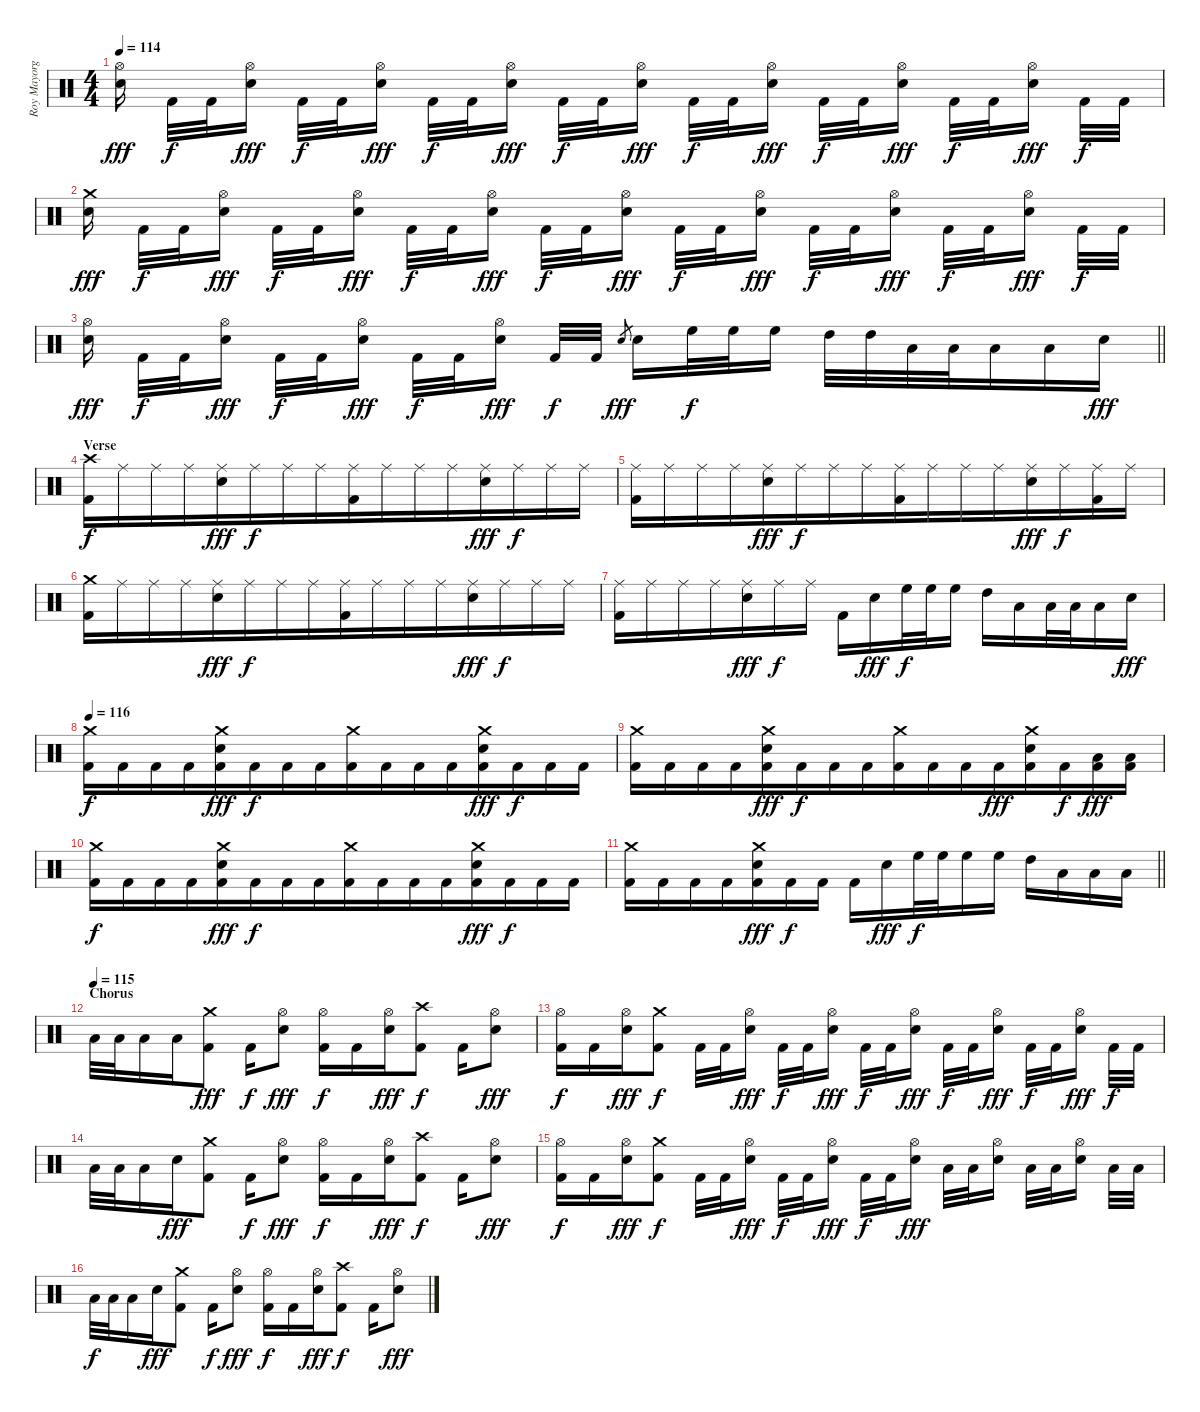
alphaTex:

\track ("Roy Mayorga" "Roy Mayorg") {instrument percussion}
\staff {score}
\articulation defaults
\ts (4 4)
\tempo 114
\clef neutral
\ks c
("Hi-Hat (open)" "Electric Snare (hit)").16{dy fff beam split} "Kick (hit) 2".32{dy f} "Kick (hit) 2".32 ("Hi-Hat (open)" "Electric Snare (hit)").16{dy fff beam split} "Kick (hit) 2".32{dy f} "Kick (hit) 2".32{beam merge} ("Hi-Hat (open)" "Electric Snare (hit)").16{dy fff beam split} "Kick (hit) 2".32{dy f} "Kick (hit) 2".32 ("Hi-Hat (open)" "Electric Snare (hit)").16{dy fff beam split} "Kick (hit) 2".32{dy f} "Kick (hit) 2".32{beam merge} ("Hi-Hat (open)" "Electric Snare (hit)").16{dy fff beam split} "Kick (hit) 2".32{dy f} "Kick (hit) 2".32 ("Hi-Hat (open)" "Electric Snare (hit)").16{dy fff beam split} "Kick (hit) 2".32{dy f} "Kick (hit) 2".32{beam merge} ("Hi-Hat (open)" "Electric Snare (hit)").16{dy fff beam split} "Kick (hit) 2".32{dy f} "Kick (hit) 2".32 ("Hi-Hat (open)" "Electric Snare (hit)").16{dy fff beam split} "Kick (hit) 2".32{dy f beam Down} "Kick (hit) 2".32{beam Down} |
("Crash medium (hit)" "Electric Snare (hit)").16{dy fff beam split} "Kick (hit) 2".32{dy f} "Kick (hit) 2".32 ("Hi-Hat (open)" "Electric Snare (hit)").16{dy fff beam split} "Kick (hit) 2".32{dy f} "Kick (hit) 2".32{beam merge} ("Hi-Hat (open)" "Electric Snare (hit)").16{dy fff beam split} "Kick (hit) 2".32{dy f} "Kick (hit) 2".32 ("Hi-Hat (open)" "Electric Snare (hit)").16{dy fff beam split} "Kick (hit) 2".32{dy f} "Kick (hit) 2".32{beam merge} ("Hi-Hat (open)" "Electric Snare (hit)").16{dy fff beam split} "Kick (hit) 2".32{dy f} "Kick (hit) 2".32 ("Hi-Hat (open)" "Electric Snare (hit)").16{dy fff beam split} "Kick (hit) 2".32{dy f} "Kick (hit) 2".32{beam merge} ("Hi-Hat (open)" "Electric Snare (hit)").16{dy fff beam split} "Kick (hit) 2".32{dy f} "Kick (hit) 2".32 ("Hi-Hat (open)" "Electric Snare (hit)").16{dy fff beam split} "Kick (hit) 2".32{dy f beam Down} "Kick (hit) 2".32{beam Down} |
\barLineRight lightlight
("Hi-Hat (open)" "Electric Snare (hit)").16{dy fff beam split} "Kick (hit) 2".32{dy f} "Kick (hit) 2".32 ("Hi-Hat (open)" "Electric Snare (hit)").16{dy fff beam split} "Kick (hit) 2".32{dy f} "Kick (hit) 2".32{beam merge} ("Hi-Hat (open)" "Electric Snare (hit)").16{dy fff beam split} "Kick (hit) 2".32{dy f} "Kick (hit) 2".32 ("Hi-Hat (open)" "Electric Snare (hit)").16{dy fff beam split} "Kick (hit) 2".32{dy f} "Kick (hit) 2".32 "Electric Snare (hit)".8{gr dy fff beam merge} "Electric Snare (hit)".16 "High Floor Tom (hit)".32{dy f} "High Floor Tom (hit)".32 "High Floor Tom (hit)".16{beam split} "High Tom (hit)".32 "High Tom (hit)".32{beam merge} "Low Tom (hit)".32 "Low Tom (hit)".32 "Low Floor Tom (hit)".16 "Low Floor Tom (hit)".16 "Electric Snare (hit)".16{dy fff} |
\section ("" "Verse")
("Crash high (hit)" "Kick (hit) 2").16{dy f} "Ride (middle)".16 "Ride (middle)".16 "Ride (middle)".16{beam merge} ("Ride (middle)" "Electric Snare (hit)").16{dy fff} "Ride (middle)".16{dy f} "Ride (middle)".16 "Ride (middle)".16{beam merge} ("Ride (middle)" "Kick (hit) 2").16 "Ride (middle)".16 "Ride (middle)".16 "Ride (middle)".16{beam merge} ("Ride (middle)" "Electric Snare (hit)").16{dy fff} "Ride (middle)".16{dy f} "Ride (middle)".16 "Ride (middle)".16 |
("Ride (middle)" "Kick (hit) 2").16 "Ride (middle)".16 "Ride (middle)".16 "Ride (middle)".16{beam merge} ("Ride (middle)" "Electric Snare (hit)").16{dy fff} "Ride (middle)".16{dy f} "Ride (middle)".16 "Ride (middle)".16{beam merge} ("Ride (middle)" "Kick (hit) 2").16 "Ride (middle)".16 "Ride (middle)".16 "Ride (middle)".16{beam merge} ("Ride (middle)" "Electric Snare (hit)").16{dy fff} "Ride (middle)".16{dy f} ("Ride (middle)" "Kick (hit) 2").16 "Ride (middle)".16 |
("Crash medium (hit)" "Kick (hit) 2").16 "Ride (middle)".16 "Ride (middle)".16 "Ride (middle)".16{beam merge} ("Ride (middle)" "Electric Snare (hit)").16{dy fff} "Ride (middle)".16{dy f} "Ride (middle)".16 "Ride (middle)".16{beam merge} ("Ride (middle)" "Kick (hit) 2").16 "Ride (middle)".16 "Ride (middle)".16 "Ride (middle)".16{beam merge} ("Ride (middle)" "Electric Snare (hit)").16{dy fff} "Ride (middle)".16{dy f} "Ride (middle)".16 "Ride (middle)".16 |
("Ride (middle)" "Kick (hit) 2").16 "Ride (middle)".16 "Ride (middle)".16 "Ride (middle)".16{beam merge} ("Ride (middle)" "Electric Snare (hit)").16{dy fff} "Ride (middle)".16{dy f} "Ride (middle)".16{beam split} "Kick (hit) 2".16{beam merge} "Electric Snare (hit)".16{dy fff} "High Floor Tom (hit)".32{dy f} "High Floor Tom (hit)".32 "High Floor Tom (hit)".16{beam split} "High Tom (hit)".16{beam merge} "Low Tom (hit)".16 "Low Floor Tom (hit)".32 "Low Floor Tom (hit)".32 "Low Floor Tom (hit)".16 "Electric Snare (hit)".16{dy fff} |
\tempo 116
("Crash medium (hit)" "Kick (hit) 2").16{dy f} "Kick (hit) 2".16 "Kick (hit) 2".16 "Kick (hit) 2".16{beam merge} ("Crash medium (hit)" "Electric Snare (hit)" "Kick (hit) 2").16{dy fff} "Kick (hit) 2".16{dy f} "Kick (hit) 2".16 "Kick (hit) 2".16{beam merge} ("Crash medium (hit)" "Kick (hit) 2").16 "Kick (hit) 2".16 "Kick (hit) 2".16 "Kick (hit) 2".16{beam merge} ("Crash medium (hit)" "Electric Snare (hit)" "Kick (hit) 2").16{dy fff} "Kick (hit) 2".16{dy f} "Kick (hit) 2".16 "Kick (hit) 2".16 |
("Crash medium (hit)" "Kick (hit) 2").16 "Kick (hit) 2".16 "Kick (hit) 2".16 "Kick (hit) 2".16{beam merge} ("Crash medium (hit)" "Electric Snare (hit)" "Kick (hit) 2").16{dy fff} "Kick (hit) 2".16{dy f} "Kick (hit) 2".16 "Kick (hit) 2".16{beam merge} ("Crash medium (hit)" "Kick (hit) 2").16 "Kick (hit) 2".16 "Kick (hit) 2".16 "Kick (hit) 2".16{dy fff beam merge} ("Crash medium (hit)" "Electric Snare (hit)" "Kick (hit) 2").16 "Kick (hit) 2".16{dy f} ("Low Tom (hit)" "Kick (hit) 2").16{dy fff} ("Low Floor Tom (hit)" "Kick (hit) 2").16 |
("Crash medium (hit)" "Kick (hit) 2").16{dy f} "Kick (hit) 2".16 "Kick (hit) 2".16 "Kick (hit) 2".16{beam merge} ("Crash medium (hit)" "Electric Snare (hit)" "Kick (hit) 2").16{dy fff} "Kick (hit) 2".16{dy f} "Kick (hit) 2".16 "Kick (hit) 2".16{beam merge} ("Crash medium (hit)" "Kick (hit) 2").16 "Kick (hit) 2".16 "Kick (hit) 2".16 "Kick (hit) 2".16{beam merge} ("Crash medium (hit)" "Electric Snare (hit)" "Kick (hit) 2").16{dy fff} "Kick (hit) 2".16{dy f} "Kick (hit) 2".16 "Kick (hit) 2".16 |
\barLineRight lightlight
("Crash medium (hit)" "Kick (hit) 2").16 "Kick (hit) 2".16 "Kick (hit) 2".16 "Kick (hit) 2".16{beam merge} ("Crash medium (hit)" "Electric Snare (hit)" "Kick (hit) 2").16{dy fff} "Kick (hit) 2".16{dy f} "Kick (hit) 2".16{beam split} "Kick (hit) 2".16{beam merge} "Electric Snare (hit)".16{dy fff} "High Floor Tom (hit)".32{dy f} "High Floor Tom (hit)".32 "High Floor Tom (hit)".16 "High Floor Tom (hit)".16 "High Tom (hit)".16 "Low Tom (hit)".16 "Low Floor Tom (hit)".16 "Low Floor Tom (hit)".16 |
\section ("" "Chorus")
\tempo (115)
"Low Tom (hit)".32 "Low Tom (hit)".32 "Low Tom (hit)".16 "Low Tom (hit)".16 ("Crash medium (hit)" "Kick (hit) 2").8{dy fff} "Kick (hit) 2".16{dy f} ("Hi-Hat (open)" "Electric Snare (hit)").8{dy fff} ("Hi-Hat (open)" "Kick (hit) 2").16{dy f} "Kick (hit) 2".16 ("Hi-Hat (open)" "Electric Snare (hit)").16{dy fff} ("Crash high (hit)" "Kick (hit) 2").8{dy f} "Kick (hit) 2".16 ("Hi-Hat (open)" "Electric Snare (hit)").8{dy fff} |
("Hi-Hat (open)" "Kick (hit) 2").16{dy f} "Kick (hit) 2".16 ("Hi-Hat (open)" "Electric Snare (hit)").16{dy fff} ("Crash medium (hit)" "Kick (hit) 2").8{dy f beam split} "Kick (hit) 2".32 "Kick (hit) 2".32 ("Hi-Hat (open)" "Electric Snare (hit)").16{dy fff beam split} "Kick (hit) 2".32{dy f} "Kick (hit) 2".32{beam merge} ("Hi-Hat (open)" "Electric Snare (hit)").16{dy fff beam split} "Kick (hit) 2".32{dy f} "Kick (hit) 2".32 ("Hi-Hat (open)" "Electric Snare (hit)").16{dy fff beam split} "Kick (hit) 2".32{dy f} "Kick (hit) 2".32{beam merge} ("Hi-Hat (open)" "Electric Snare (hit)").16{dy fff beam split} "Kick (hit) 2".32{dy f} "Kick (hit) 2".32 ("Hi-Hat (open)" "Electric Snare (hit)").16{dy fff beam split} "Kick (hit) 2".32{dy f beam Down} "Kick (hit) 2".32{beam Down} |
"Low Tom (hit)".32 "Low Tom (hit)".32 "Low Tom (hit)".16 "Electric Snare (hit)".16{dy fff} ("Crash medium (hit)" "Kick (hit) 2").8 "Kick (hit) 2".16{dy f} ("Hi-Hat (open)" "Electric Snare (hit)").8{dy fff} ("Hi-Hat (open)" "Kick (hit) 2").16{dy f} "Kick (hit) 2".16 ("Hi-Hat (open)" "Electric Snare (hit)").16{dy fff} ("Crash high (hit)" "Kick (hit) 2").8{dy f} "Kick (hit) 2".16 ("Hi-Hat (open)" "Electric Snare (hit)").8{dy fff} |
("Hi-Hat (open)" "Kick (hit) 2").16{dy f} "Kick (hit) 2".16 ("Hi-Hat (open)" "Electric Snare (hit)").16{dy fff} ("Crash medium (hit)" "Kick (hit) 2").8{dy f} "Kick (hit) 2".32 "Kick (hit) 2".32 ("Hi-Hat (open)" "Electric Snare (hit)").16{dy fff beam split} "Kick (hit) 2".32{dy f} "Kick (hit) 2".32{beam merge} ("Hi-Hat (open)" "Electric Snare (hit)").16{dy fff beam split} "Kick (hit) 2".32{dy f} "Kick (hit) 2".32 ("Hi-Hat (open)" "Electric Snare (hit)").16{dy fff beam split} "Low Floor Tom (hit)".32 "Low Floor Tom (hit)".32{beam merge} ("Hi-Hat (open)" "Electric Snare (hit)").16{beam split} "Low Floor Tom (hit)".32 "Low Floor Tom (hit)".32 ("Hi-Hat (open)" "Electric Snare (hit)").16{beam split} "Low Floor Tom (hit)".32{beam Down} "Low Floor Tom (hit)".32{beam Down} |
"Low Tom (hit)".32{dy f} "Low Tom (hit)".32 "Low Tom (hit)".16 "Electric Snare (hit)".16{dy fff} ("Crash medium (hit)" "Kick (hit) 2").8 "Kick (hit) 2".16{dy f} ("Hi-Hat (open)" "Electric Snare (hit)").8{dy fff} ("Hi-Hat (open)" "Kick (hit) 2").16{dy f} "Kick (hit) 2".16 ("Hi-Hat (open)" "Electric Snare (hit)").16{dy fff} ("Crash high (hit)" "Kick (hit) 2").8{dy f} "Kick (hit) 2".16 ("Hi-Hat (open)" "Electric Snare (hit)").8{dy fff}
